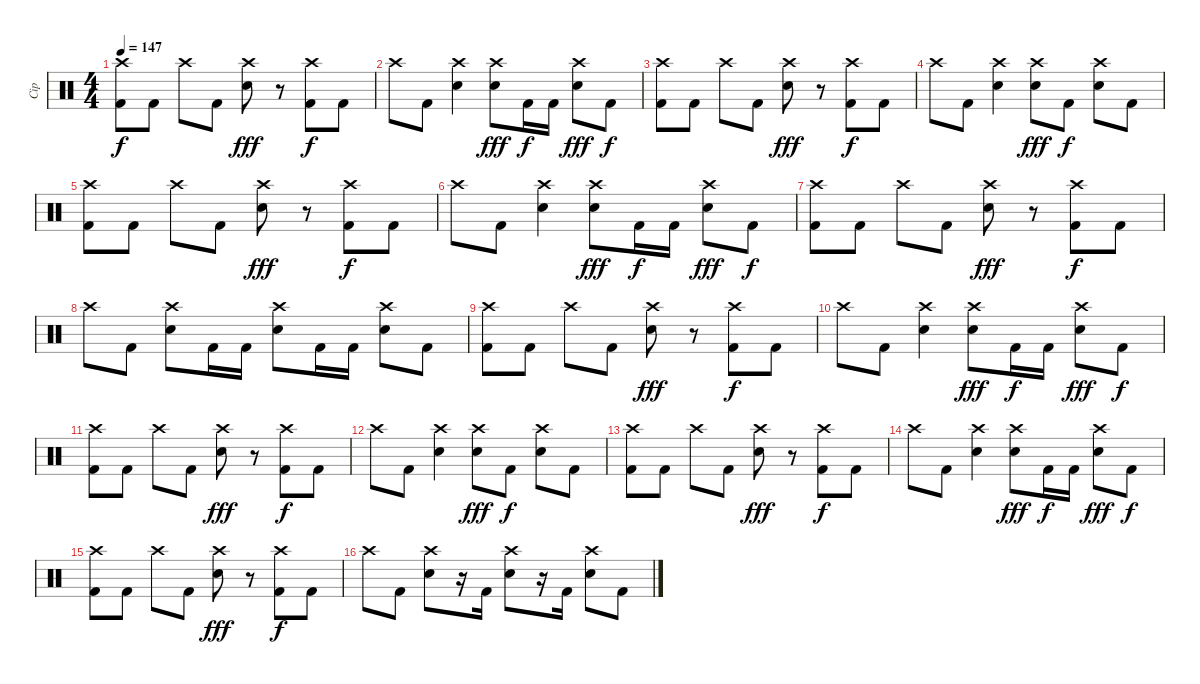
\track ("Cip" "Cip") {instrument percussion}
\staff {score}
\articulation defaults
\ts (4 4)
\tempo 147
\clef neutral
\ks c
("Crash high (hit)" "Kick (hit) 2").8{dy f} "Kick (hit) 2".8 "Crash high (hit)".8 "Kick (hit) 2".8 ("Crash high (hit)" "Electric Snare (hit)").8{dy fff} r.8 ("Crash high (hit)" "Kick (hit) 2").8{dy f} "Kick (hit) 2".8 |
"Crash high (hit)".8 "Kick (hit) 2".8 ("Crash high (hit)" "Electric Snare (hit)").4 ("Crash high (hit)" "Electric Snare (hit)").8{dy fff} "Kick (hit) 2".16{dy f} "Kick (hit) 2".16 ("Crash high (hit)" "Electric Snare (hit)").8{dy fff} "Kick (hit) 2".8{dy f} |
("Crash high (hit)" "Kick (hit) 2").8 "Kick (hit) 2".8 "Crash high (hit)".8 "Kick (hit) 2".8 ("Crash high (hit)" "Electric Snare (hit)").8{dy fff} r.8 ("Crash high (hit)" "Kick (hit) 2").8{dy f} "Kick (hit) 2".8 |
"Crash high (hit)".8 "Kick (hit) 2".8 ("Crash high (hit)" "Electric Snare (hit)").4 ("Crash high (hit)" "Electric Snare (hit)").8{dy fff} "Kick (hit) 2".8{dy f} ("Crash high (hit)" "Electric Snare (hit)").8 "Kick (hit) 2".8 |
("Crash high (hit)" "Kick (hit) 2").8 "Kick (hit) 2".8 "Crash high (hit)".8 "Kick (hit) 2".8 ("Crash high (hit)" "Electric Snare (hit)").8{dy fff} r.8 ("Crash high (hit)" "Kick (hit) 2").8{dy f} "Kick (hit) 2".8 |
"Crash high (hit)".8 "Kick (hit) 2".8 ("Crash high (hit)" "Electric Snare (hit)").4 ("Crash high (hit)" "Electric Snare (hit)").8{dy fff} "Kick (hit) 2".16{dy f} "Kick (hit) 2".16 ("Crash high (hit)" "Electric Snare (hit)").8{dy fff} "Kick (hit) 2".8{dy f} |
("Crash high (hit)" "Kick (hit) 2").8 "Kick (hit) 2".8 "Crash high (hit)".8 "Kick (hit) 2".8 ("Crash high (hit)" "Electric Snare (hit)").8{dy fff} r.8 ("Crash high (hit)" "Kick (hit) 2").8{dy f} "Kick (hit) 2".8 |
"Crash high (hit)".8 "Kick (hit) 2".8 ("Crash high (hit)" "Electric Snare (hit)").8 "Kick (hit) 2".16 "Kick (hit) 2".16 ("Crash high (hit)" "Electric Snare (hit)").8 "Kick (hit) 2".16 "Kick (hit) 2".16 ("Crash high (hit)" "Electric Snare (hit)").8 "Kick (hit) 2".8 |
("Crash high (hit)" "Kick (hit) 2").8 "Kick (hit) 2".8 "Crash high (hit)".8 "Kick (hit) 2".8 ("Crash high (hit)" "Electric Snare (hit)").8{dy fff} r.8 ("Crash high (hit)" "Kick (hit) 2").8{dy f} "Kick (hit) 2".8 |
"Crash high (hit)".8 "Kick (hit) 2".8 ("Crash high (hit)" "Electric Snare (hit)").4 ("Crash high (hit)" "Electric Snare (hit)").8{dy fff} "Kick (hit) 2".16{dy f} "Kick (hit) 2".16 ("Crash high (hit)" "Electric Snare (hit)").8{dy fff} "Kick (hit) 2".8{dy f} |
("Crash high (hit)" "Kick (hit) 2").8 "Kick (hit) 2".8 "Crash high (hit)".8 "Kick (hit) 2".8 ("Crash high (hit)" "Electric Snare (hit)").8{dy fff} r.8 ("Crash high (hit)" "Kick (hit) 2").8{dy f} "Kick (hit) 2".8 |
"Crash high (hit)".8 "Kick (hit) 2".8 ("Crash high (hit)" "Electric Snare (hit)").4 ("Crash high (hit)" "Electric Snare (hit)").8{dy fff} "Kick (hit) 2".8{dy f} ("Crash high (hit)" "Electric Snare (hit)").8 "Kick (hit) 2".8 |
("Crash high (hit)" "Kick (hit) 2").8 "Kick (hit) 2".8 "Crash high (hit)".8 "Kick (hit) 2".8 ("Crash high (hit)" "Electric Snare (hit)").8{dy fff} r.8 ("Crash high (hit)" "Kick (hit) 2").8{dy f} "Kick (hit) 2".8 |
"Crash high (hit)".8 "Kick (hit) 2".8 ("Crash high (hit)" "Electric Snare (hit)").4 ("Crash high (hit)" "Electric Snare (hit)").8{dy fff} "Kick (hit) 2".16{dy f} "Kick (hit) 2".16 ("Crash high (hit)" "Electric Snare (hit)").8{dy fff} "Kick (hit) 2".8{dy f} |
("Crash high (hit)" "Kick (hit) 2").8 "Kick (hit) 2".8 "Crash high (hit)".8 "Kick (hit) 2".8 ("Crash high (hit)" "Electric Snare (hit)").8{dy fff} r.8 ("Crash high (hit)" "Kick (hit) 2").8{dy f} "Kick (hit) 2".8 |
"Crash high (hit)".8 "Kick (hit) 2".8 ("Crash high (hit)" "Electric Snare (hit)").8 r.16 "Kick (hit) 2".16 ("Crash high (hit)" "Electric Snare (hit)").8 r.16 "Kick (hit) 2".16 ("Crash high (hit)" "Electric Snare (hit)").8 "Kick (hit) 2".8
